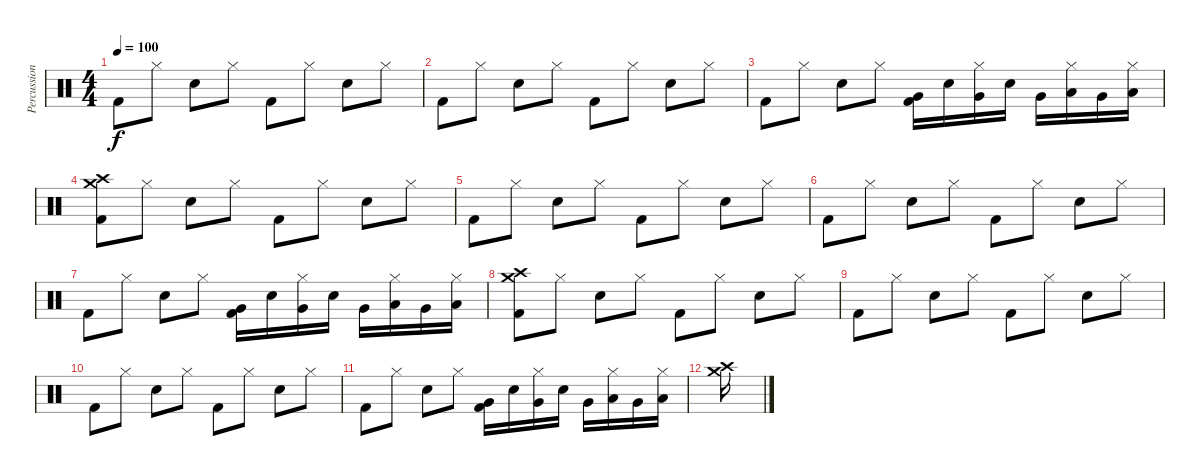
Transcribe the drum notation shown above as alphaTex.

\track ("Percussion" "Percussion") {instrument percussion}
\staff {score}
\articulation defaults
\ts (4 4)
\tempo 100
\clef neutral
\ks c "Kick (hit) 2".8{dy f} "Hi-Hat (closed)".8 "Electric Snare (hit)".8 "Hi-Hat (closed)".8 "Kick (hit) 2".8 "Hi-Hat (closed)".8 "Electric Snare (hit)".8 "Hi-Hat (closed)".8
|
"Kick (hit) 2".8 "Hi-Hat (closed)".8 "Electric Snare (hit)".8 "Hi-Hat (closed)".8 "Kick (hit) 2".8 "Hi-Hat (closed)".8 "Electric Snare (hit)".8 "Hi-Hat (closed)".8 |
"Kick (hit) 2".8 "Hi-Hat (closed)".8 "Electric Snare (hit)".8 "Hi-Hat (closed)".8 ("Kick (hit) 2" "Very Low Tom (hit)").16 "Electric Snare (hit)".16 ("Hi-Hat (closed)" "Very Low Tom (hit)").16 "Electric Snare (hit)".16 "Very Low Tom (hit)".16 ("Hi-Hat (closed)" "Low Floor Tom (hit)").16 "Very Low Tom (hit)".16 ("Hi-Hat (closed)" "Low Floor Tom (hit)").16 |
("Kick (hit) 2" "Crash high (hit)" "Crash medium (hit)").8 "Hi-Hat (closed)".8 "Electric Snare (hit)".8 "Hi-Hat (closed)".8 "Kick (hit) 2".8 "Hi-Hat (closed)".8 "Electric Snare (hit)".8 "Hi-Hat (closed)".8 |
"Kick (hit) 2".8 "Hi-Hat (closed)".8 "Electric Snare (hit)".8 "Hi-Hat (closed)".8 "Kick (hit) 2".8 "Hi-Hat (closed)".8 "Electric Snare (hit)".8 "Hi-Hat (closed)".8 |
"Kick (hit) 2".8 "Hi-Hat (closed)".8 "Electric Snare (hit)".8 "Hi-Hat (closed)".8 "Kick (hit) 2".8 "Hi-Hat (closed)".8 "Electric Snare (hit)".8 "Hi-Hat (closed)".8 |
"Kick (hit) 2".8 "Hi-Hat (closed)".8 "Electric Snare (hit)".8 "Hi-Hat (closed)".8 ("Kick (hit) 2" "Very Low Tom (hit)").16 "Electric Snare (hit)".16 ("Hi-Hat (closed)" "Very Low Tom (hit)").16 "Electric Snare (hit)".16 "Very Low Tom (hit)".16 ("Hi-Hat (closed)" "Low Floor Tom (hit)").16 "Very Low Tom (hit)".16 ("Hi-Hat (closed)" "Low Floor Tom (hit)").16 |
("Kick (hit) 2" "Crash high (hit)" "Crash medium (hit)").8 "Hi-Hat (closed)".8 "Electric Snare (hit)".8 "Hi-Hat (closed)".8 "Kick (hit) 2".8 "Hi-Hat (closed)".8 "Electric Snare (hit)".8 "Hi-Hat (closed)".8 |
"Kick (hit) 2".8 "Hi-Hat (closed)".8 "Electric Snare (hit)".8 "Hi-Hat (closed)".8 "Kick (hit) 2".8 "Hi-Hat (closed)".8 "Electric Snare (hit)".8 "Hi-Hat (closed)".8 |
"Kick (hit) 2".8 "Hi-Hat (closed)".8 "Electric Snare (hit)".8 "Hi-Hat (closed)".8 "Kick (hit) 2".8 "Hi-Hat (closed)".8 "Electric Snare (hit)".8 "Hi-Hat (closed)".8 |
"Kick (hit) 2".8 "Hi-Hat (closed)".8 "Electric Snare (hit)".8 "Hi-Hat (closed)".8 ("Kick (hit) 2" "Very Low Tom (hit)").16 "Electric Snare (hit)".16 ("Hi-Hat (closed)" "Very Low Tom (hit)").16 "Electric Snare (hit)".16 "Very Low Tom (hit)".16 ("Hi-Hat (closed)" "Low Floor Tom (hit)").16 "Very Low Tom (hit)".16 ("Hi-Hat (closed)" "Low Floor Tom (hit)").16 |
("Crash high (hit)" "Crash medium (hit)").16
